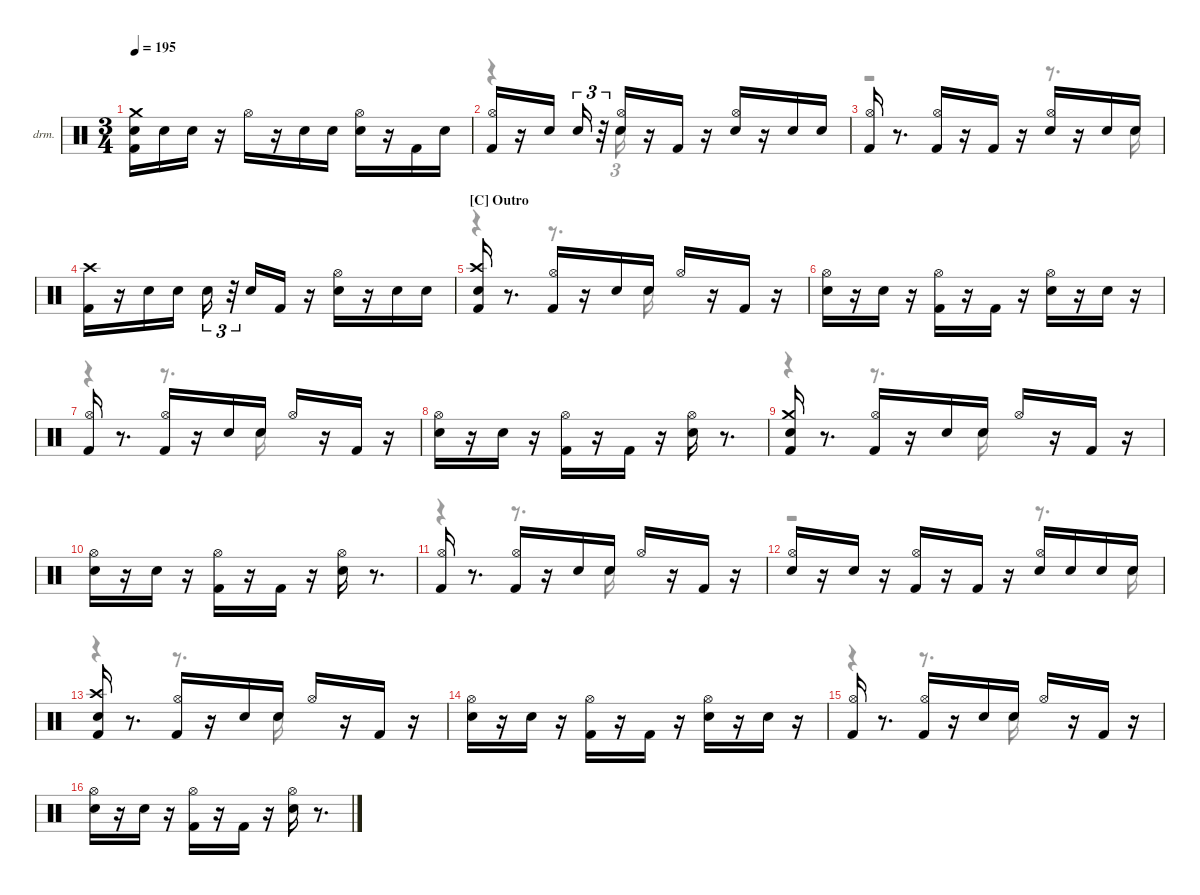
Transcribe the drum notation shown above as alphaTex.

\hideDynamics
\bracketExtendMode nobrackets
\firstSystemTrackNameOrientation horizontal
\track ("Drums" "drm.") {instrument percussion}
\staff {score}
\articulation defaults
\voice
\ts (3 4)
\tempo 195
\clef neutral
\ks aminor
("Kick (hit) 2" "Snare (hit) 2" "Crash medium (hit)").16{dy fff} "Snare (hit) 2".16{dy pp} "Snare (hit) 2".16{dy ppp} r.16 "Hi-Hat (open)"{acc #}.16{dy mp} r.16 "Snare (hit) 2".16{dy ff} "Snare (hit) 2".16{dy pp} ("Snare (hit) 2" "Hi-Hat (open)"{acc #}).16{dy ppp} r.16 "Kick (hit) 2".16{dy p} "Snare (hit) 2".16{dy ppp} |
("Kick (hit) 2" "Hi-Hat (open)"{acc #}).16{dy fff} r.16 "Snare (hit) 2".16{dy ff} "Snare (hit) 2".16{tu (3 2) dy pp} r.32{tu (3 2)} ("Snare (hit) 2" "Hi-Hat (open)"{acc #}).16{dy ppp} r.16 "Kick (hit) 2".16{dy f} r.16 ("Snare (hit) 2" "Hi-Hat (open)"{acc #}).16{dy mf} r.16 "Snare (hit) 2".16{dy f} "Snare (hit) 2".16{dy ppp} |
("Kick (hit) 2" "Hi-Hat (open)"{acc #}).16{dy fff} r.8{d} ("Kick (hit) 2" "Hi-Hat (open)"{acc #}).16{dy mf} r.16 "Kick (hit) 2".16{dy ff} r.16 ("Snare (hit) 2" "Hi-Hat (open)"{acc #}).16{dy mf} r.16 "Snare (hit) 2".16{dy pp} "Snare (hit) 2".16{dy ppp} |
("Kick (hit) 2" "Crash high (hit)"{acc #}).16{dy ff} r.16 "Snare (hit) 2".16{dy mf} "Snare (hit) 2".16{dy p} "Snare (hit) 2".16{tu (3 2) dy fff} r.32{tu (3 2)} "Snare (hit) 2".16{dy ppp} "Kick (hit) 2".16{dy f} r.16 ("Snare (hit) 2" "Hi-Hat (open)"{acc #}).16{dy fff} r.16 "Snare (hit) 2".16{dy pp} "Snare (hit) 2".16{dy ppp} |
\section ("C" "Outro")
("Kick (hit) 2" "Snare (hit) 2" "Crash high (hit)"{acc #}).16{dy mp} r.8{d} ("Kick (hit) 2" "Hi-Hat (open)"{acc #}).16{dy mf} r.16 "Snare (hit) 2".16{dy f} "Snare (hit) 2".16{dy ppp} "Hi-Hat (open)"{acc #}.16{dy f} r.16 "Kick (hit) 2".16 r.16 |
("Snare (hit) 2" "Hi-Hat (open)"{acc #}).16{dy ff} r.16 "Snare (hit) 2".16{dy ppp} r.16 ("Kick (hit) 2" "Hi-Hat (open)"{acc #}).16{dy mf} r.16 "Kick (hit) 2".16{dy ff} r.16 ("Snare (hit) 2" "Hi-Hat (open)"{acc #}).16{dy fff} r.16 "Snare (hit) 2".16{dy pp} r.16 |
("Kick (hit) 2" "Hi-Hat (open)"{acc #}).16{dy fff} r.8{d} ("Kick (hit) 2" "Hi-Hat (open)"{acc #}).16{dy f} r.16 "Snare (hit) 2".16 "Snare (hit) 2".16{dy ppp} "Hi-Hat (open)"{acc #}.16{dy ff} r.16 "Kick (hit) 2".16{dy f} r.16 |
("Snare (hit) 2" "Hi-Hat (open)"{acc #}).16{dy ff} r.16 "Snare (hit) 2".16{dy ppp} r.16 ("Kick (hit) 2" "Hi-Hat (open)"{acc #}).16 r.16 "Kick (hit) 2".16{dy ff} r.16 ("Snare (hit) 2" "Hi-Hat (open)"{acc #}).16 r.8{d} |
("Kick (hit) 2" "Snare (hit) 2" "Crash medium (hit)").16 r.8{d} ("Kick (hit) 2" "Hi-Hat (open)"{acc #}).16{dy mf} r.16 "Snare (hit) 2".16{dy f} "Snare (hit) 2".16{dy ppp} "Hi-Hat (open)"{acc #}.16{dy f} r.16 "Kick (hit) 2".16 r.16 |
("Snare (hit) 2" "Hi-Hat (open)"{acc #}).16{dy ff} r.16 "Snare (hit) 2".16{dy ppp} r.16 ("Kick (hit) 2" "Hi-Hat (open)"{acc #}).16 r.16 "Kick (hit) 2".16{dy ff} r.16 ("Snare (hit) 2" "Hi-Hat (open)"{acc #}).16{dy fff} r.8{d} |
("Kick (hit) 2" "Hi-Hat (open)"{acc #}).16{dy ff} r.8{d} ("Kick (hit) 2" "Hi-Hat (open)"{acc #}).16{dy mf} r.16 "Snare (hit) 2".16{dy f} "Snare (hit) 2".16{dy ppp} "Hi-Hat (open)"{acc #}.16{dy ff} r.16 "Kick (hit) 2".16{dy f} r.16 |
("Snare (hit) 2" "Hi-Hat (open)"{acc #}).16{dy ff} r.16 "Snare (hit) 2".16{dy ppp} r.16 ("Kick (hit) 2" "Hi-Hat (open)"{acc #}).16{dy mf} r.16 "Kick (hit) 2".16{dy ff} r.16 ("Snare (hit) 2" "Hi-Hat (open)"{acc #}).16{dy f} "Snare (hit) 2".16{dy pp} "Snare (hit) 2".16{dy ppp} "Snare (hit) 2".16 |
("Snare (hit) 2" "Crash high (hit)"{acc #} "Kick (hit) 2").16{dy ff} r.8{d} ("Kick (hit) 2" "Hi-Hat (open)"{acc #}).16{dy mf} r.16 "Snare (hit) 2".16{dy f} "Snare (hit) 2".16{dy ppp} "Hi-Hat (open)"{acc #}.16{dy f} r.16 "Kick (hit) 2".16 r.16 |
("Snare (hit) 2" "Hi-Hat (open)"{acc #}).16{dy ff} r.16 "Snare (hit) 2".16{dy ppp} r.16 ("Kick (hit) 2" "Hi-Hat (open)"{acc #}).16 r.16 "Kick (hit) 2".16{dy ff} r.16 ("Snare (hit) 2" "Hi-Hat (open)"{acc #}).16{dy fff} r.16 "Snare (hit) 2".16{dy pp} r.16 |
("Kick (hit) 2" "Hi-Hat (open)"{acc #}).16{dy ff} r.8{d} ("Kick (hit) 2" "Hi-Hat (open)"{acc #}).16{dy f} r.16 "Snare (hit) 2".16 "Snare (hit) 2".16{dy ppp} "Hi-Hat (open)"{acc #}.16{dy ff} r.16 "Kick (hit) 2".16{dy f} r.16 |
("Snare (hit) 2" "Hi-Hat (open)"{acc #}).16{dy ff} r.16 "Snare (hit) 2".16{dy ppp} r.16 ("Kick (hit) 2" "Hi-Hat (open)"{acc #}).16{dy f} r.16 "Kick (hit) 2".16{dy ff} r.16 ("Snare (hit) 2" "Hi-Hat (open)"{acc #}).16 r.8{d}
\voice
\clef neutral
\ottava regular
\simile none
\ks aminor
|
r.4 "Snare (hit) 2".16{tu (3 2)} |
r.2 r.8{d} "Snare (hit) 2".16 |
|
r.4 r.8{d} "Snare (hit) 2".16{dy pp} |
|
r.4 r.8{d} "Snare (hit) 2".16 |
|
r.4 r.8{d} "Snare (hit) 2".16 |
|
r.4 r.8{d} "Snare (hit) 2".16 |
r.2 r.8{d} "Snare (hit) 2".16{dy ppp} |
r.4 r.8{d} "Snare (hit) 2".16{dy pp} |
|
r.4 r.8{d} "Snare (hit) 2".16 |
